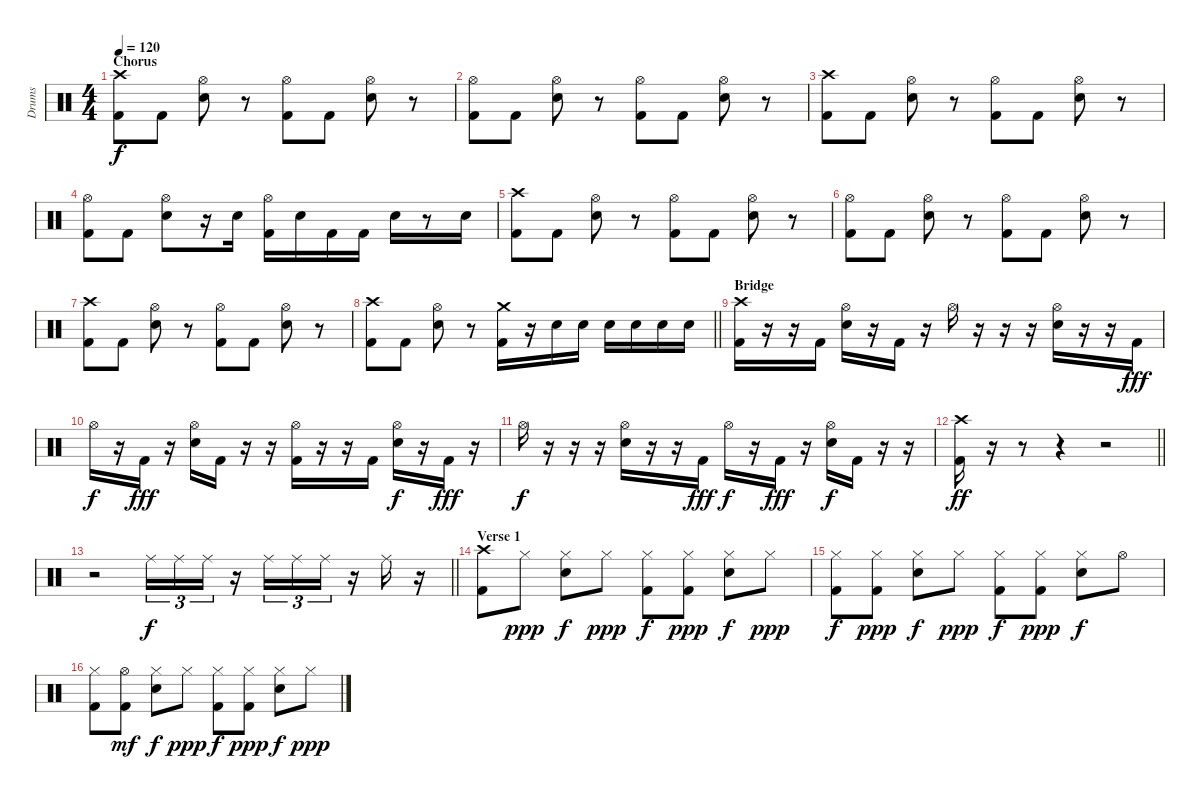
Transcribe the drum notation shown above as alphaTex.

\track ("Drums" "Drums") {instrument percussion}
\staff {score}
\articulation defaults
\ts (4 4)
\section ("" "Chorus")
\tempo 120
\clef neutral
\ks c
("Crash high (hit)" "Kick (hit) 2").8{dy f} "Kick (hit) 2".8 ("Hi-Hat (open)" "Snare (hit) 2").8 r.8 ("Hi-Hat (open)" "Kick (hit) 2").8 "Kick (hit) 2".8 ("Hi-Hat (open)" "Snare (hit) 2").8 r.8 |
("Hi-Hat (open)" "Kick (hit) 2").8 "Kick (hit) 2".8 ("Hi-Hat (open)" "Snare (hit) 2").8 r.8 ("Hi-Hat (open)" "Kick (hit) 2").8 "Kick (hit) 2".8 ("Hi-Hat (open)" "Snare (hit) 2").8 r.8 |
("Crash high (hit)" "Kick (hit) 2").8 "Kick (hit) 2".8 ("Hi-Hat (open)" "Snare (hit) 2").8 r.8 ("Hi-Hat (open)" "Kick (hit) 2").8 "Kick (hit) 2".8 ("Hi-Hat (open)" "Snare (hit) 2").8 r.8 |
("Hi-Hat (open)" "Kick (hit) 2").8 "Kick (hit) 2".8 ("Hi-Hat (open)" "Snare (hit) 2").8 r.16 "Snare (hit) 2".16 ("Hi-Hat (open)" "Kick (hit) 2").16 "Snare (hit) 2".16 "Kick (hit) 2".16 "Kick (hit) 2".16 "Snare (hit) 2".16 r.8 "Snare (hit) 2".16 |
("Crash high (hit)" "Kick (hit) 2").8 "Kick (hit) 2".8 ("Hi-Hat (open)" "Snare (hit) 2").8 r.8 ("Hi-Hat (open)" "Kick (hit) 2").8 "Kick (hit) 2".8 ("Hi-Hat (open)" "Snare (hit) 2").8 r.8 |
("Hi-Hat (open)" "Kick (hit) 2").8 "Kick (hit) 2".8 ("Hi-Hat (open)" "Snare (hit) 2").8 r.8 ("Hi-Hat (open)" "Kick (hit) 2").8 "Kick (hit) 2".8 ("Hi-Hat (open)" "Snare (hit) 2").8 r.8 |
("Crash high (hit)" "Kick (hit) 2").8 "Kick (hit) 2".8 ("Hi-Hat (open)" "Snare (hit) 2").8 r.8 ("Hi-Hat (open)" "Kick (hit) 2").8 "Kick (hit) 2".8 ("Hi-Hat (open)" "Snare (hit) 2").8 r.8 |
\barLineRight lightlight
("Crash high (hit)" "Kick (hit) 2").8 "Kick (hit) 2".8 ("Hi-Hat (open)" "Snare (hit) 2").8 r.8 ("Crash medium (hit)" "Kick (hit) 2").16 r.16 "Snare (hit) 2".16 "Snare (hit) 2".16 "Snare (hit) 2".16 "Snare (hit) 2".16 "Snare (hit) 2".16 "Snare (hit) 2".16 |
\section ("" "Bridge")
("Crash high (hit)" "Kick (hit) 2").16 r.16 r.16 "Kick (hit) 2".16 ("Hi-Hat (open)" "Snare (hit) 2").16 r.16 "Kick (hit) 2".16 r.16 "Hi-Hat (open)".16 r.16 r.16 r.16 ("Hi-Hat (open)" "Snare (hit) 2").16 r.16 r.16 "Kick (hit) 2".16{dy fff} |
"Hi-Hat (open)".16{dy f} r.16 "Kick (hit) 2".16{dy fff} r.16 ("Hi-Hat (open)" "Snare (hit) 2").16 "Kick (hit) 2".16 r.16 r.16 ("Hi-Hat (open)" "Kick (hit) 2").16 r.16 r.16 "Kick (hit) 2".16 ("Hi-Hat (open)" "Snare (hit) 2").16{dy f} r.16 "Kick (hit) 2".16{dy fff} r.16 |
"Hi-Hat (open)".16{dy f} r.16 r.16 r.16 ("Hi-Hat (open)" "Snare (hit) 2").16 r.16 r.16 "Kick (hit) 2".16{dy fff} "Hi-Hat (open)".16{dy f} r.16 "Kick (hit) 2".16{dy fff} r.16 ("Hi-Hat (open)" "Snare (hit) 2").16{dy f} "Kick (hit) 2".16 r.16 r.16 |
\barLineRight lightlight
("Crash high (hit)" "Kick (hit) 2").16{dy ff} r.16 r.8 r.4 r.2 |
\barLineRight lightlight
r.2 "Ride (middle)".16{tu (3 2) dy f} "Ride (middle)".16{tu (3 2)} "Ride (middle)".16{tu (3 2)} r.16 "Ride (middle)".16{tu (3 2)} "Ride (middle)".16{tu (3 2)} "Ride (middle)".16{tu (3 2)} r.16 "Ride (middle)".16 r.16 |
\section ("" "Verse 1")
("Crash high (hit)" "Kick (hit) 2").8 "Hi-Hat (closed)".8{dy ppp} ("Hi-Hat (closed)" "Snare (hit) 2").8{dy f} "Hi-Hat (closed)".8{dy ppp} ("Hi-Hat (closed)" "Kick (hit) 2").8{dy f} ("Hi-Hat (closed)" "Kick (hit) 2").8{dy ppp} ("Hi-Hat (closed)" "Snare (hit) 2").8{dy f} "Hi-Hat (closed)".8{dy ppp} |
("Hi-Hat (closed)" "Kick (hit) 2").8{dy f} ("Hi-Hat (closed)" "Kick (hit) 2").8{dy ppp} ("Hi-Hat (closed)" "Snare (hit) 2").8{dy f} "Hi-Hat (closed)".8{dy ppp} ("Hi-Hat (closed)" "Kick (hit) 2").8{dy f} ("Hi-Hat (closed)" "Kick (hit) 2").8{dy ppp} ("Hi-Hat (closed)" "Snare (hit) 2").8{dy f} "Hi-Hat (open)".8 |
("Hi-Hat (closed)" "Kick (hit) 2").8 ("Hi-Hat (open)" "Kick (hit) 2").8{dy mf} ("Hi-Hat (closed)" "Snare (hit) 2").8{dy f} "Hi-Hat (closed)".8{dy ppp} ("Hi-Hat (closed)" "Kick (hit) 2").8{dy f} ("Hi-Hat (closed)" "Kick (hit) 2").8{dy ppp} ("Hi-Hat (closed)" "Snare (hit) 2").8{dy f} "Hi-Hat (closed)".8{dy ppp}
